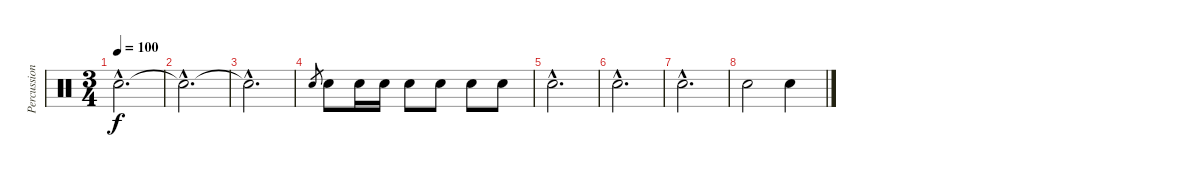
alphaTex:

\track ("Percussion" "Percussion") {instrument percussion}
\staff {score}
\articulation defaults
\ts (3 4)
\tempo 100
\clef neutral
\ks c "Snare (hit) 2"{tr (38 64) hac}.2{d dy f}
|
"Snare (hit) 2"{hac t}.2{d} |
"Snare (hit) 2"{hac t}.2{d} |
"Snare (hit) 2".8{gr} "Snare (hit) 2".8 "Snare (hit) 2".16 "Snare (hit) 2".16 "Snare (hit) 2".8 "Snare (hit) 2".8 "Snare (hit) 2".8 "Snare (hit) 2".8 |
"Snare (hit) 2"{tr (38 64) hac}.2{d} |
"Snare (hit) 2"{tr (38 64) hac}.2{d} |
"Snare (hit) 2"{tr (38 64) hac}.2{d} |
"Snare (hit) 2"{tr (38 64)}.2 "Snare (hit) 2".4
